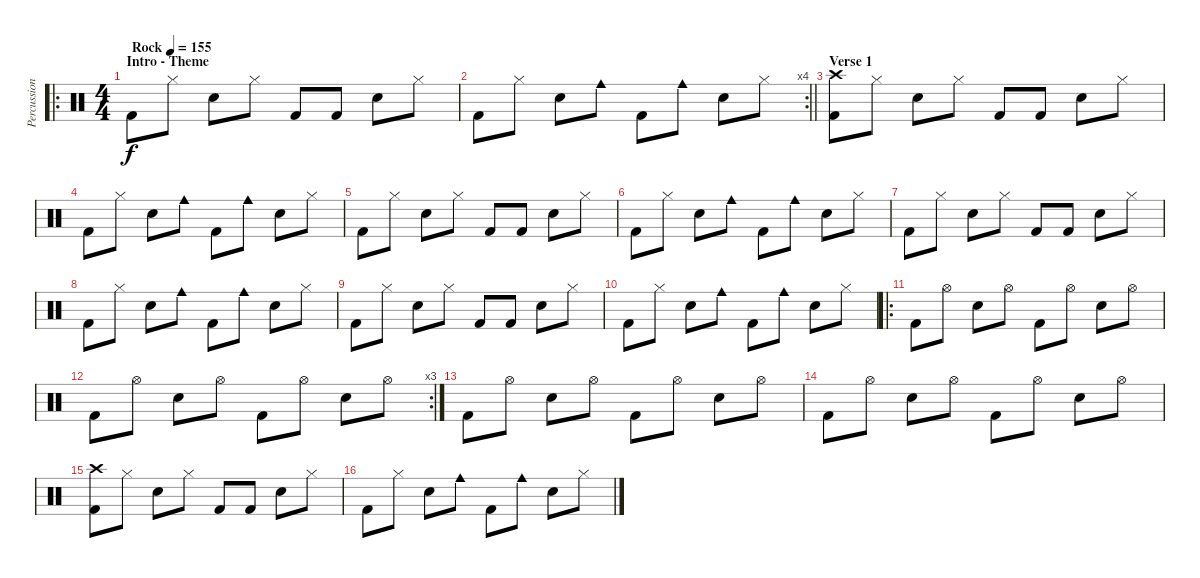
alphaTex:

\track ("Percussioni" "Percussion") {instrument percussion}
\staff {score}
\articulation defaults
\ro
\ts (4 4)
\section ("" "Intro - Theme")
\tempo (155 "Rock")
\clef neutral
\ks c "Kick (hit) 2".8{dy f} "Hi-Hat (closed)".8 "Snare (hit) 2".8 "Hi-Hat (closed)".8 "Kick (hit) 2".8 "Kick (hit) 2".8 "Snare (hit) 2".8 "Hi-Hat (closed)".8
|
\rc 4
\barLineRight lightlight "Kick (hit) 2".8 "Hi-Hat (closed)".8 "Snare (hit) 2".8 "Cowbell medium (hit)".8 "Kick (hit) 2".8 "Cowbell medium (hit)".8 "Snare (hit) 2".8 "Hi-Hat (closed)".8
|
\section ("" "Verse 1")
("Crash high (hit)" "Kick (hit) 2").8 "Hi-Hat (closed)".8 "Snare (hit) 2".8 "Hi-Hat (closed)".8 "Kick (hit) 2".8 "Kick (hit) 2".8 "Snare (hit) 2".8 "Hi-Hat (closed)".8 |
"Kick (hit) 2".8 "Hi-Hat (closed)".8 "Snare (hit) 2".8 "Cowbell medium (hit)".8 "Kick (hit) 2".8 "Cowbell medium (hit)".8 "Snare (hit) 2".8 "Hi-Hat (closed)".8 |
"Kick (hit) 2".8 "Hi-Hat (closed)".8 "Snare (hit) 2".8 "Hi-Hat (closed)".8 "Kick (hit) 2".8 "Kick (hit) 2".8 "Snare (hit) 2".8 "Hi-Hat (closed)".8 |
"Kick (hit) 2".8 "Hi-Hat (closed)".8 "Snare (hit) 2".8 "Cowbell medium (hit)".8 "Kick (hit) 2".8 "Cowbell medium (hit)".8 "Snare (hit) 2".8 "Hi-Hat (closed)".8 |
"Kick (hit) 2".8 "Hi-Hat (closed)".8 "Snare (hit) 2".8 "Hi-Hat (closed)".8 "Kick (hit) 2".8 "Kick (hit) 2".8 "Snare (hit) 2".8 "Hi-Hat (closed)".8 |
"Kick (hit) 2".8 "Hi-Hat (closed)".8 "Snare (hit) 2".8 "Cowbell medium (hit)".8 "Kick (hit) 2".8 "Cowbell medium (hit)".8 "Snare (hit) 2".8 "Hi-Hat (closed)".8 |
"Kick (hit) 2".8 "Hi-Hat (closed)".8 "Snare (hit) 2".8 "Hi-Hat (closed)".8 "Kick (hit) 2".8 "Kick (hit) 2".8 "Snare (hit) 2".8 "Hi-Hat (closed)".8 |
"Kick (hit) 2".8 "Hi-Hat (closed)".8 "Snare (hit) 2".8 "Cowbell medium (hit)".8 "Kick (hit) 2".8 "Cowbell medium (hit)".8 "Snare (hit) 2".8 "Hi-Hat (closed)".8 |
\ro "Kick (hit) 2".8 "Hi-Hat (open)".8 "Snare (hit) 2".8 "Hi-Hat (open)".8 "Kick (hit) 2".8 "Hi-Hat (open)".8 "Snare (hit) 2".8 "Hi-Hat (open)".8
|
\rc 3 "Kick (hit) 2".8 "Hi-Hat (open)".8 "Snare (hit) 2".8 "Hi-Hat (open)".8 "Kick (hit) 2".8 "Hi-Hat (open)".8 "Snare (hit) 2".8 "Hi-Hat (open)".8
|
"Kick (hit) 2".8 "Hi-Hat (open)".8 "Snare (hit) 2".8 "Hi-Hat (open)".8 "Kick (hit) 2".8 "Hi-Hat (open)".8 "Snare (hit) 2".8 "Hi-Hat (open)".8 |
"Kick (hit) 2".8 "Hi-Hat (open)".8 "Snare (hit) 2".8 "Hi-Hat (open)".8 "Kick (hit) 2".8 "Hi-Hat (open)".8 "Snare (hit) 2".8 "Hi-Hat (open)".8 |
("Crash high (hit)" "Kick (hit) 2").8 "Hi-Hat (closed)".8 "Snare (hit) 2".8 "Hi-Hat (closed)".8 "Kick (hit) 2".8 "Kick (hit) 2".8 "Snare (hit) 2".8 "Hi-Hat (closed)".8 |
"Kick (hit) 2".8 "Hi-Hat (closed)".8 "Snare (hit) 2".8 "Cowbell medium (hit)".8 "Kick (hit) 2".8 "Cowbell medium (hit)".8 "Snare (hit) 2".8 "Hi-Hat (closed)".8
